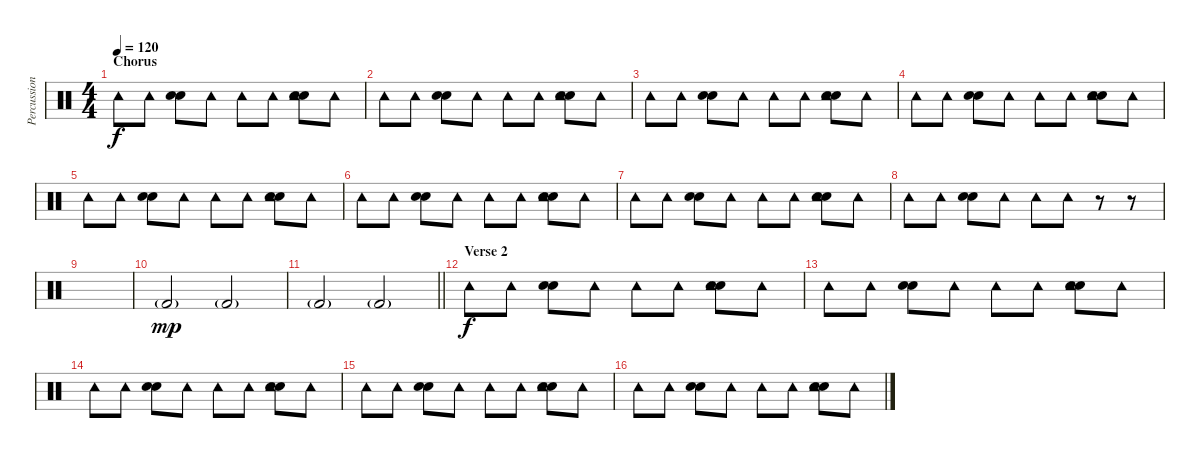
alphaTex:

\track ("Percussion" "Percussion") {instrument percussion}
\staff {score}
\articulation defaults
\ts (4 4)
\section ("" "Chorus")
\tempo 120
\clef neutral
\ks c "Tambourine (hit)".8{dy f} "Tambourine (hit)".8
("Snare (hit) 2" "Snare (hit) 2").8 "Tambourine (hit)".8 "Tambourine (hit)".8 "Tambourine (hit)".8 ("Snare (hit) 2" "Snare (hit) 2" "Tambourine (hit)").8 "Tambourine (hit)".8 |
"Tambourine (hit)".8 "Tambourine (hit)".8 ("Snare (hit) 2" "Snare (hit) 2").8 "Tambourine (hit)".8 "Tambourine (hit)".8 "Tambourine (hit)".8 ("Snare (hit) 2" "Snare (hit) 2" "Tambourine (hit)").8 "Tambourine (hit)".8 |
"Tambourine (hit)".8 "Tambourine (hit)".8 ("Snare (hit) 2" "Snare (hit) 2").8 "Tambourine (hit)".8 "Tambourine (hit)".8 "Tambourine (hit)".8 ("Snare (hit) 2" "Snare (hit) 2" "Tambourine (hit)").8 "Tambourine (hit)".8 |
"Tambourine (hit)".8 "Tambourine (hit)".8 ("Snare (hit) 2" "Snare (hit) 2").8 "Tambourine (hit)".8 "Tambourine (hit)".8 "Tambourine (hit)".8 ("Snare (hit) 2" "Snare (hit) 2" "Tambourine (hit)").8 "Tambourine (hit)".8 |
"Tambourine (hit)".8 "Tambourine (hit)".8 ("Snare (hit) 2" "Snare (hit) 2").8 "Tambourine (hit)".8 "Tambourine (hit)".8 "Tambourine (hit)".8 ("Snare (hit) 2" "Snare (hit) 2" "Tambourine (hit)").8 "Tambourine (hit)".8 |
"Tambourine (hit)".8 "Tambourine (hit)".8 ("Snare (hit) 2" "Snare (hit) 2").8 "Tambourine (hit)".8 "Tambourine (hit)".8 "Tambourine (hit)".8 ("Snare (hit) 2" "Snare (hit) 2" "Tambourine (hit)").8 "Tambourine (hit)".8 |
"Tambourine (hit)".8 "Tambourine (hit)".8 ("Snare (hit) 2" "Snare (hit) 2").8 "Tambourine (hit)".8 "Tambourine (hit)".8 "Tambourine (hit)".8 ("Snare (hit) 2" "Snare (hit) 2" "Tambourine (hit)").8 "Tambourine (hit)".8 |
"Tambourine (hit)".8 "Tambourine (hit)".8 ("Snare (hit) 2" "Snare (hit) 2").8 "Tambourine (hit)".8 "Tambourine (hit)".8 "Tambourine (hit)".8 r.8 r.8 |
|
"Kick (hit) 2"{g}.2{dy mp} "Kick (hit) 2"{g}.2 |
\barLineRight lightlight "Kick (hit) 2"{g}.2 "Kick (hit) 2"{g}.2
|
\section ("" "Verse 2")
"Tambourine (hit)".8{dy f} "Tambourine (hit)".8 ("Snare (hit) 2" "Snare (hit) 2").8 "Tambourine (hit)".8 "Tambourine (hit)".8 "Tambourine (hit)".8 ("Snare (hit) 2" "Snare (hit) 2" "Tambourine (hit)").8 "Tambourine (hit)".8 |
"Tambourine (hit)".8 "Tambourine (hit)".8 ("Snare (hit) 2" "Snare (hit) 2").8 "Tambourine (hit)".8 "Tambourine (hit)".8 "Tambourine (hit)".8 ("Snare (hit) 2" "Snare (hit) 2" "Tambourine (hit)").8 "Tambourine (hit)".8 |
"Tambourine (hit)".8 "Tambourine (hit)".8 ("Snare (hit) 2" "Snare (hit) 2").8 "Tambourine (hit)".8 "Tambourine (hit)".8 "Tambourine (hit)".8 ("Snare (hit) 2" "Snare (hit) 2" "Tambourine (hit)").8 "Tambourine (hit)".8 |
"Tambourine (hit)".8 "Tambourine (hit)".8 ("Snare (hit) 2" "Snare (hit) 2").8 "Tambourine (hit)".8 "Tambourine (hit)".8 "Tambourine (hit)".8 ("Snare (hit) 2" "Snare (hit) 2" "Tambourine (hit)").8 "Tambourine (hit)".8 |
"Tambourine (hit)".8 "Tambourine (hit)".8 ("Snare (hit) 2" "Snare (hit) 2").8 "Tambourine (hit)".8 "Tambourine (hit)".8 "Tambourine (hit)".8 ("Snare (hit) 2" "Snare (hit) 2" "Tambourine (hit)").8 "Tambourine (hit)".8
